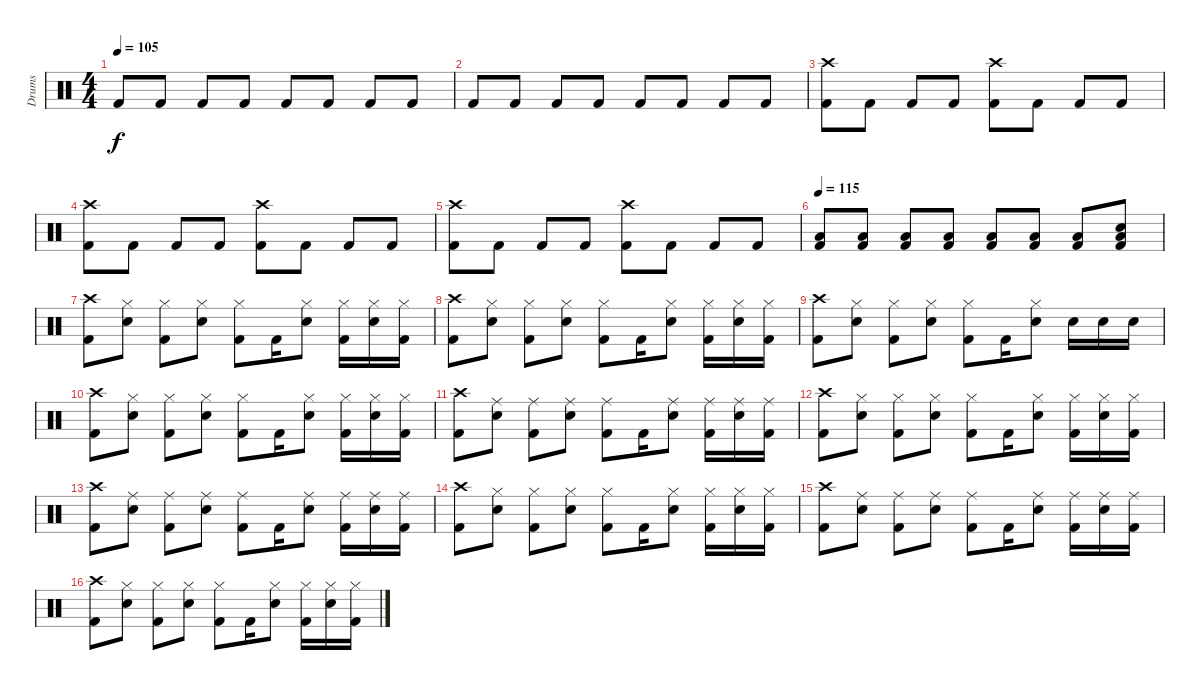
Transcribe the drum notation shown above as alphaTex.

\track ("Drums" "Drums") {instrument percussion}
\staff {score}
\articulation defaults
\ts (4 4)
\tempo 105
\clef neutral
\ks c "Kick (hit) 2".8{dy f} "Kick (hit) 2".8 "Kick (hit) 2".8 "Kick (hit) 2".8 "Kick (hit) 2".8 "Kick (hit) 2".8 "Kick (hit) 2".8 "Kick (hit) 2".8
|
"Kick (hit) 2".8 "Kick (hit) 2".8 "Kick (hit) 2".8 "Kick (hit) 2".8 "Kick (hit) 2".8 "Kick (hit) 2".8 "Kick (hit) 2".8 "Kick (hit) 2".8 |
("Crash high (hit)" "Kick (hit) 2").8 "Kick (hit) 2".8 "Kick (hit) 2".8 "Kick (hit) 2".8 ("Crash high (hit)" "Kick (hit) 2").8 "Kick (hit) 2".8 "Kick (hit) 2".8 "Kick (hit) 2".8 |
("Crash high (hit)" "Kick (hit) 2").8 "Kick (hit) 2".8 "Kick (hit) 2".8 "Kick (hit) 2".8 ("Crash high (hit)" "Kick (hit) 2").8 "Kick (hit) 2".8 "Kick (hit) 2".8 "Kick (hit) 2".8 |
("Crash high (hit)" "Kick (hit) 2").8 "Kick (hit) 2".8 "Kick (hit) 2".8 "Kick (hit) 2".8 ("Crash high (hit)" "Kick (hit) 2").8 "Kick (hit) 2".8 "Kick (hit) 2".8 "Kick (hit) 2".8 |
\tempo 115
("Low Floor Tom (hit)" "Kick (hit) 2").8 ("Low Floor Tom (hit)" "Kick (hit) 2").8 ("Low Floor Tom (hit)" "Kick (hit) 2").8 ("Low Floor Tom (hit)" "Kick (hit) 2").8 ("Low Floor Tom (hit)" "Kick (hit) 2").8 ("Low Floor Tom (hit)" "Kick (hit) 2").8 ("Low Floor Tom (hit)" "Kick (hit) 2").8 ("Low Floor Tom (hit)" "Electric Snare (hit)" "Kick (hit) 2").8 |
("Crash high (hit)" "Kick (hit) 2").8 ("Hi-Hat (closed)" "Electric Snare (hit)").8 ("Hi-Hat (closed)" "Kick (hit) 2").8 ("Hi-Hat (closed)" "Electric Snare (hit)").8 ("Hi-Hat (closed)" "Kick (hit) 2").8 "Kick (hit) 2".16 ("Hi-Hat (closed)" "Electric Snare (hit)").8 ("Hi-Hat (closed)" "Kick (hit) 2").16 ("Hi-Hat (closed)" "Electric Snare (hit)").16 ("Hi-Hat (closed)" "Kick (hit) 2").16 |
("Crash high (hit)" "Kick (hit) 2").8 ("Hi-Hat (closed)" "Electric Snare (hit)").8 ("Hi-Hat (closed)" "Kick (hit) 2").8 ("Hi-Hat (closed)" "Electric Snare (hit)").8 ("Hi-Hat (closed)" "Kick (hit) 2").8 "Kick (hit) 2".16 ("Hi-Hat (closed)" "Electric Snare (hit)").8 ("Hi-Hat (closed)" "Kick (hit) 2").16 ("Hi-Hat (closed)" "Electric Snare (hit)").16 ("Hi-Hat (closed)" "Kick (hit) 2").16 |
("Crash high (hit)" "Kick (hit) 2").8 ("Hi-Hat (closed)" "Electric Snare (hit)").8 ("Hi-Hat (closed)" "Kick (hit) 2").8 ("Hi-Hat (closed)" "Electric Snare (hit)").8 ("Hi-Hat (closed)" "Kick (hit) 2").8 "Kick (hit) 2".16 ("Hi-Hat (closed)" "Electric Snare (hit)").8 "Electric Snare (hit)".16 "Electric Snare (hit)".16 "Electric Snare (hit)".16 |
("Crash high (hit)" "Kick (hit) 2").8 ("Hi-Hat (closed)" "Electric Snare (hit)").8 ("Hi-Hat (closed)" "Kick (hit) 2").8 ("Hi-Hat (closed)" "Electric Snare (hit)").8 ("Hi-Hat (closed)" "Kick (hit) 2").8 "Kick (hit) 2".16 ("Hi-Hat (closed)" "Electric Snare (hit)").8 ("Hi-Hat (closed)" "Kick (hit) 2").16 ("Hi-Hat (closed)" "Electric Snare (hit)").16 ("Hi-Hat (closed)" "Kick (hit) 2").16 |
("Crash high (hit)" "Kick (hit) 2").8 ("Ride (middle)" "Electric Snare (hit)").8 ("Ride (middle)" "Kick (hit) 2").8 ("Ride (middle)" "Electric Snare (hit)").8 ("Ride (middle)" "Kick (hit) 2").8 "Kick (hit) 2".16 ("Ride (middle)" "Electric Snare (hit)").8 ("Ride (middle)" "Kick (hit) 2").16 ("Ride (middle)" "Electric Snare (hit)").16 ("Ride (middle)" "Kick (hit) 2").16 |
("Crash high (hit)" "Kick (hit) 2").8 ("Hi-Hat (closed)" "Electric Snare (hit)").8 ("Hi-Hat (closed)" "Kick (hit) 2").8 ("Hi-Hat (closed)" "Electric Snare (hit)").8 ("Hi-Hat (closed)" "Kick (hit) 2").8 "Kick (hit) 2".16 ("Hi-Hat (closed)" "Electric Snare (hit)").8 ("Hi-Hat (closed)" "Kick (hit) 2").16 ("Hi-Hat (closed)" "Electric Snare (hit)").16 ("Hi-Hat (closed)" "Kick (hit) 2").16 |
("Crash high (hit)" "Kick (hit) 2").8 ("Ride (middle)" "Electric Snare (hit)").8 ("Ride (middle)" "Kick (hit) 2").8 ("Ride (middle)" "Electric Snare (hit)").8 ("Ride (middle)" "Kick (hit) 2").8 "Kick (hit) 2".16 ("Ride (middle)" "Electric Snare (hit)").8 ("Ride (middle)" "Kick (hit) 2").16 ("Ride (middle)" "Electric Snare (hit)").16 ("Ride (middle)" "Kick (hit) 2").16 |
("Crash high (hit)" "Kick (hit) 2").8 ("Hi-Hat (closed)" "Electric Snare (hit)").8 ("Hi-Hat (closed)" "Kick (hit) 2").8 ("Hi-Hat (closed)" "Electric Snare (hit)").8 ("Hi-Hat (closed)" "Kick (hit) 2").8 "Kick (hit) 2".16 ("Hi-Hat (closed)" "Electric Snare (hit)").8 ("Hi-Hat (closed)" "Kick (hit) 2").16 ("Hi-Hat (closed)" "Electric Snare (hit)").16 ("Hi-Hat (closed)" "Kick (hit) 2").16 |
("Crash high (hit)" "Kick (hit) 2").8 ("Ride (middle)" "Electric Snare (hit)").8 ("Ride (middle)" "Kick (hit) 2").8 ("Ride (middle)" "Electric Snare (hit)").8 ("Ride (middle)" "Kick (hit) 2").8 "Kick (hit) 2".16 ("Ride (middle)" "Electric Snare (hit)").8 ("Ride (middle)" "Kick (hit) 2").16 ("Ride (middle)" "Electric Snare (hit)").16 ("Ride (middle)" "Kick (hit) 2").16 |
("Crash high (hit)" "Kick (hit) 2").8 ("Hi-Hat (closed)" "Electric Snare (hit)").8 ("Hi-Hat (closed)" "Kick (hit) 2").8 ("Hi-Hat (closed)" "Electric Snare (hit)").8 ("Hi-Hat (closed)" "Kick (hit) 2").8 "Kick (hit) 2".16 ("Hi-Hat (closed)" "Electric Snare (hit)").8 ("Hi-Hat (closed)" "Kick (hit) 2").16 ("Hi-Hat (closed)" "Electric Snare (hit)").16 ("Hi-Hat (closed)" "Kick (hit) 2").16
